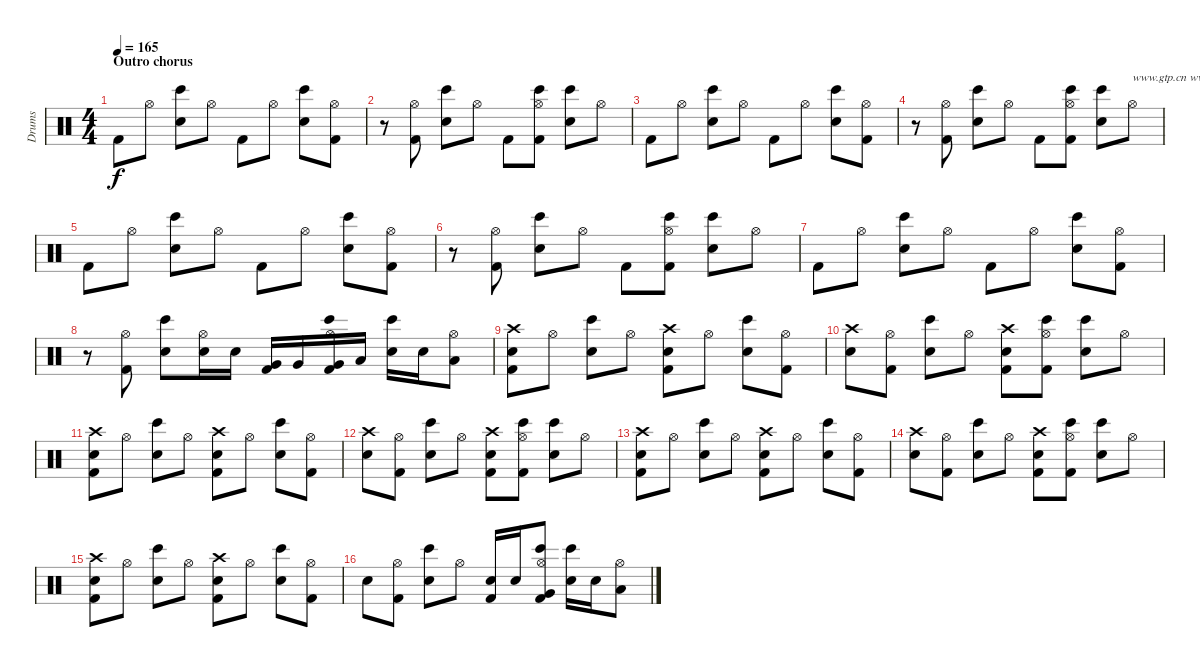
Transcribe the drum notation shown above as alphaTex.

\track ("Drums" "Drums") {instrument percussion}
\staff {score}
\articulation defaults
\ts (4 4)
\section ("" "Outro chorus")
\tempo 165
\clef neutral
\ks c "Kick (hit) 2".8{dy f} "Hi-Hat (open)".8
("Electric Snare (hit)" "Bongo High (hit)").8 "Hi-Hat (open)".8 "Kick (hit) 2".8 "Hi-Hat (open)".8 ("Electric Snare (hit)" "Bongo High (hit)").8 ("Hi-Hat (open)" "Kick (hit) 2").8 |
r.8 ("Hi-Hat (open)" "Kick (hit) 2").8 ("Electric Snare (hit)" "Bongo High (hit)").8 "Hi-Hat (open)".8 "Kick (hit) 2".8 ("Hi-Hat (open)" "Kick (hit) 2" "Bongo High (hit)").8 ("Electric Snare (hit)" "Bongo High (hit)").8 "Hi-Hat (open)".8 |
"Kick (hit) 2".8 "Hi-Hat (open)".8 ("Electric Snare (hit)" "Bongo High (hit)").8 "Hi-Hat (open)".8 "Kick (hit) 2".8 "Hi-Hat (open)".8 ("Electric Snare (hit)" "Bongo High (hit)").8 ("Hi-Hat (open)" "Kick (hit) 2").8 |
r.8 ("Hi-Hat (open)" "Kick (hit) 2").8 ("Electric Snare (hit)" "Bongo High (hit)").8 "Hi-Hat (open)".8 "Kick (hit) 2".8 ("Hi-Hat (open)" "Kick (hit) 2" "Bongo High (hit)").8 ("Electric Snare (hit)" "Bongo High (hit)").8 "Hi-Hat (open)".8{txt "www.gtp.cn www.51gtp.com联合为您提供优秀的GTP!"} |
"Kick (hit) 2".8 "Hi-Hat (open)".8 ("Electric Snare (hit)" "Bongo High (hit)").8 "Hi-Hat (open)".8 "Kick (hit) 2".8 "Hi-Hat (open)".8 ("Electric Snare (hit)" "Bongo High (hit)").8 ("Hi-Hat (open)" "Kick (hit) 2").8 |
r.8 ("Hi-Hat (open)" "Kick (hit) 2").8 ("Electric Snare (hit)" "Bongo High (hit)").8 "Hi-Hat (open)".8 "Kick (hit) 2".8 ("Hi-Hat (open)" "Kick (hit) 2" "Bongo High (hit)").8 ("Electric Snare (hit)" "Bongo High (hit)").8 "Hi-Hat (open)".8 |
"Kick (hit) 2".8 "Hi-Hat (open)".8 ("Electric Snare (hit)" "Bongo High (hit)").8 "Hi-Hat (open)".8 "Kick (hit) 2".8 "Hi-Hat (open)".8 ("Electric Snare (hit)" "Bongo High (hit)").8 ("Hi-Hat (open)" "Kick (hit) 2").8 |
r.8 ("Hi-Hat (open)" "Kick (hit) 2").8 ("Electric Snare (hit)" "Bongo High (hit)").8 ("Hi-Hat (open)" "Electric Snare (hit)").16 "Electric Snare (hit)".16 ("Kick (hit) 2" "Very Low Tom (hit)").16 "Very Low Tom (hit)".16 ("Hi-Hat (open)" "Kick (hit) 2" "Very Low Tom (hit)" "Bongo High (hit)").16 "Low Floor Tom (hit)".16 ("Electric Snare (hit)" "Bongo High (hit)").16 "Electric Snare (hit)".16 ("Hi-Hat (open)" "Low Floor Tom (hit)").8 |
("Crash high (hit)" "Kick (hit) 2" "Electric Snare (hit)").8 "Hi-Hat (open)".8 ("Electric Snare (hit)" "Bongo High (hit)").8 "Hi-Hat (open)".8 ("Crash high (hit)" "Kick (hit) 2" "Electric Snare (hit)").8 "Hi-Hat (open)".8 ("Electric Snare (hit)" "Bongo High (hit)").8 ("Hi-Hat (open)" "Kick (hit) 2").8 |
("Crash high (hit)" "Electric Snare (hit)").8 ("Hi-Hat (open)" "Kick (hit) 2").8 ("Electric Snare (hit)" "Bongo High (hit)").8 "Hi-Hat (open)".8 ("Crash high (hit)" "Kick (hit) 2" "Electric Snare (hit)").8 ("Hi-Hat (open)" "Kick (hit) 2" "Bongo High (hit)").8 ("Electric Snare (hit)" "Bongo High (hit)").8 "Hi-Hat (open)".8 |
("Crash high (hit)" "Kick (hit) 2" "Electric Snare (hit)").8 "Hi-Hat (open)".8 ("Electric Snare (hit)" "Bongo High (hit)").8 "Hi-Hat (open)".8 ("Crash high (hit)" "Kick (hit) 2" "Electric Snare (hit)").8 "Hi-Hat (open)".8 ("Electric Snare (hit)" "Bongo High (hit)").8 ("Hi-Hat (open)" "Kick (hit) 2").8 |
("Crash high (hit)" "Electric Snare (hit)").8 ("Hi-Hat (open)" "Kick (hit) 2").8 ("Electric Snare (hit)" "Bongo High (hit)").8 "Hi-Hat (open)".8 ("Crash high (hit)" "Kick (hit) 2" "Electric Snare (hit)").8 ("Hi-Hat (open)" "Kick (hit) 2" "Bongo High (hit)").8 ("Electric Snare (hit)" "Bongo High (hit)").8 "Hi-Hat (open)".8 |
("Crash high (hit)" "Kick (hit) 2" "Electric Snare (hit)").8 "Hi-Hat (open)".8 ("Electric Snare (hit)" "Bongo High (hit)").8 "Hi-Hat (open)".8 ("Crash high (hit)" "Kick (hit) 2" "Electric Snare (hit)").8 "Hi-Hat (open)".8 ("Electric Snare (hit)" "Bongo High (hit)").8 ("Hi-Hat (open)" "Kick (hit) 2").8 |
("Crash high (hit)" "Electric Snare (hit)").8 ("Hi-Hat (open)" "Kick (hit) 2").8 ("Electric Snare (hit)" "Bongo High (hit)").8 "Hi-Hat (open)".8 ("Crash high (hit)" "Kick (hit) 2" "Electric Snare (hit)").8 ("Hi-Hat (open)" "Kick (hit) 2" "Bongo High (hit)").8 ("Electric Snare (hit)" "Bongo High (hit)").8 "Hi-Hat (open)".8 |
("Crash high (hit)" "Kick (hit) 2" "Electric Snare (hit)").8 "Hi-Hat (open)".8 ("Electric Snare (hit)" "Bongo High (hit)").8 "Hi-Hat (open)".8 ("Crash high (hit)" "Kick (hit) 2" "Electric Snare (hit)").8 "Hi-Hat (open)".8 ("Electric Snare (hit)" "Bongo High (hit)").8 ("Hi-Hat (open)" "Kick (hit) 2").8 |
"Electric Snare (hit)".8 ("Hi-Hat (open)" "Kick (hit) 2").8 ("Electric Snare (hit)" "Bongo High (hit)").8 "Hi-Hat (open)".8 ("Kick (hit) 2" "Electric Snare (hit)").16 "Electric Snare (hit)".16 ("Hi-Hat (open)" "Kick (hit) 2" "Very Low Tom (hit)" "Bongo High (hit)").8 ("Electric Snare (hit)" "Bongo High (hit)").16 "Electric Snare (hit)".16 ("Hi-Hat (open)" "Low Floor Tom (hit)").8
